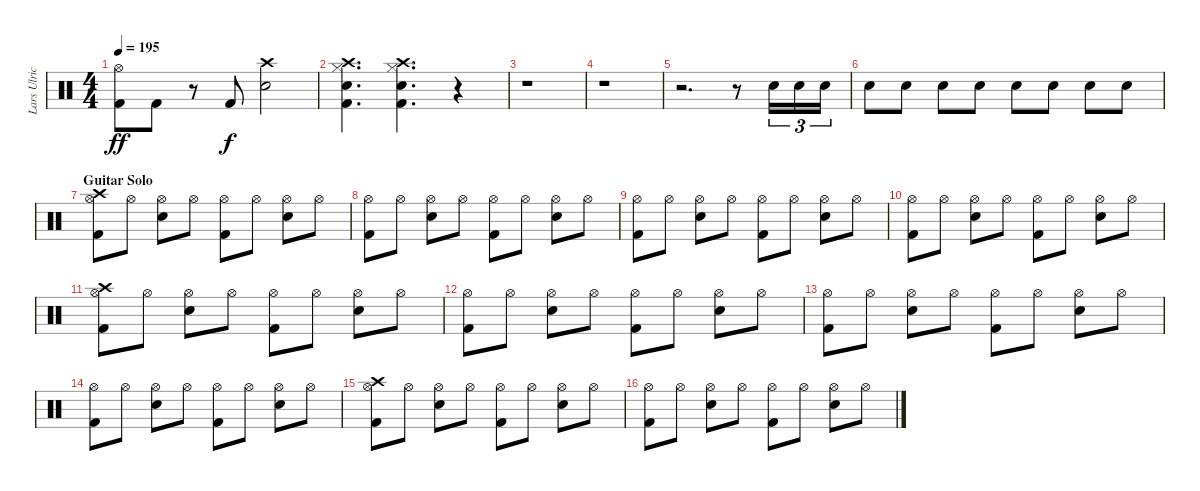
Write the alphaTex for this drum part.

\track ("Lars Ulrich" "Lars Ulric") {instrument percussion}
\staff {score}
\articulation defaults
\ts (4 4)
\tempo 195
\clef neutral
\ks c
("Kick (hit) 2" "Hi-Hat (open)").8{dy ff} "Kick (hit) 2".8 r.8 "Kick (hit) 2".8{dy f} ("Snare (hit) 2" "Crash high (hit)").2 |
("Kick (hit) 2" "Snare (hit) 2" "Hi-Hat (closed)" "Crash high (hit)").4{d} ("Kick (hit) 2" "Snare (hit) 2" "Hi-Hat (closed)" "Crash high (hit)").4{d} r.4 |
r.1 |
r.1 |
r.2{d} r.8 "Snare (hit) 2".16{tu (3 2)} "Snare (hit) 2".16{tu (3 2)} "Snare (hit) 2".16{tu (3 2)} |
"Snare (hit) 2".8 "Snare (hit) 2".8 "Snare (hit) 2".8 "Snare (hit) 2".8 "Snare (hit) 2".8 "Snare (hit) 2".8 "Snare (hit) 2".8 "Snare (hit) 2".8 |
\section ("" "Guitar Solo")
("Kick (hit) 2" "Hi-Hat (open)" "Crash high (hit)").8 "Hi-Hat (open)".8 ("Snare (hit) 2" "Hi-Hat (open)").8 "Hi-Hat (open)".8 ("Kick (hit) 2" "Hi-Hat (open)").8 "Hi-Hat (open)".8 ("Snare (hit) 2" "Hi-Hat (open)").8 "Hi-Hat (open)".8 |
("Kick (hit) 2" "Hi-Hat (open)").8 "Hi-Hat (open)".8 ("Snare (hit) 2" "Hi-Hat (open)").8 "Hi-Hat (open)".8 ("Kick (hit) 2" "Hi-Hat (open)").8 "Hi-Hat (open)".8 ("Snare (hit) 2" "Hi-Hat (open)").8 "Hi-Hat (open)".8 |
("Kick (hit) 2" "Hi-Hat (open)").8 "Hi-Hat (open)".8 ("Snare (hit) 2" "Hi-Hat (open)").8 "Hi-Hat (open)".8 ("Kick (hit) 2" "Hi-Hat (open)").8 "Hi-Hat (open)".8 ("Snare (hit) 2" "Hi-Hat (open)").8 "Hi-Hat (open)".8 |
("Kick (hit) 2" "Hi-Hat (open)").8 "Hi-Hat (open)".8 ("Snare (hit) 2" "Hi-Hat (open)").8 "Hi-Hat (open)".8 ("Kick (hit) 2" "Hi-Hat (open)").8 "Hi-Hat (open)".8 ("Snare (hit) 2" "Hi-Hat (open)").8 "Hi-Hat (open)".8 |
("Kick (hit) 2" "Hi-Hat (open)" "Crash high (hit)").8 "Hi-Hat (open)".8 ("Snare (hit) 2" "Hi-Hat (open)").8 "Hi-Hat (open)".8 ("Kick (hit) 2" "Hi-Hat (open)").8 "Hi-Hat (open)".8 ("Snare (hit) 2" "Hi-Hat (open)").8 "Hi-Hat (open)".8 |
("Kick (hit) 2" "Hi-Hat (open)").8 "Hi-Hat (open)".8 ("Snare (hit) 2" "Hi-Hat (open)").8 "Hi-Hat (open)".8 ("Kick (hit) 2" "Hi-Hat (open)").8 "Hi-Hat (open)".8 ("Snare (hit) 2" "Hi-Hat (open)").8 "Hi-Hat (open)".8 |
("Kick (hit) 2" "Hi-Hat (open)").8 "Hi-Hat (open)".8 ("Snare (hit) 2" "Hi-Hat (open)").8 "Hi-Hat (open)".8 ("Kick (hit) 2" "Hi-Hat (open)").8 "Hi-Hat (open)".8 ("Snare (hit) 2" "Hi-Hat (open)").8 "Hi-Hat (open)".8 |
("Kick (hit) 2" "Hi-Hat (open)").8 "Hi-Hat (open)".8 ("Snare (hit) 2" "Hi-Hat (open)").8 "Hi-Hat (open)".8 ("Kick (hit) 2" "Hi-Hat (open)").8 "Hi-Hat (open)".8 ("Snare (hit) 2" "Hi-Hat (open)").8 "Hi-Hat (open)".8 |
("Kick (hit) 2" "Hi-Hat (open)" "Crash high (hit)").8 "Hi-Hat (open)".8 ("Snare (hit) 2" "Hi-Hat (open)").8 "Hi-Hat (open)".8 ("Kick (hit) 2" "Hi-Hat (open)").8 "Hi-Hat (open)".8 ("Snare (hit) 2" "Hi-Hat (open)").8 "Hi-Hat (open)".8 |
("Kick (hit) 2" "Hi-Hat (open)").8 "Hi-Hat (open)".8 ("Snare (hit) 2" "Hi-Hat (open)").8 "Hi-Hat (open)".8 ("Kick (hit) 2" "Hi-Hat (open)").8 "Hi-Hat (open)".8 ("Snare (hit) 2" "Hi-Hat (open)").8 "Hi-Hat (open)".8
